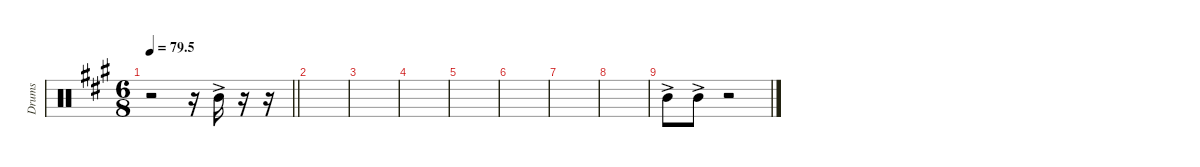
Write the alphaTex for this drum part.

\defaultSystemsLayout 4
\hideDynamics
\bracketExtendMode nobrackets
\otherSystemsTrackNameOrientation horizontal
\track ("Tom 02" "Drums") {instrument percussion}
\staff {score}
\articulation defaults
\ts (6 8)
\tempo
79.5
\accidentals auto
\clef neutral
\ottava regular
\simile none
\scale
0.333333
\barLineRight lightlight
\ks a
r.2{dy f} r.16 "Mid Tom (hit)"{ac acc forcenatural}.16 r.16 r.16 |
\scale
0.333333 |
\scale
0.333333 |
\scale
0.333333 |
\scale
0.333333 |
\scale
0.333333 |
\scale
0.333333 |
\scale
0.333333 |
\scale
0.333333 "Mid Tom (hit)"{ac acc forcenatural}.8 "Mid Tom (hit)"{ac acc forcenatural}.8 r.2 |
\scale
0.333333 |
\scale
0.333333 |
\scale
0.333333
